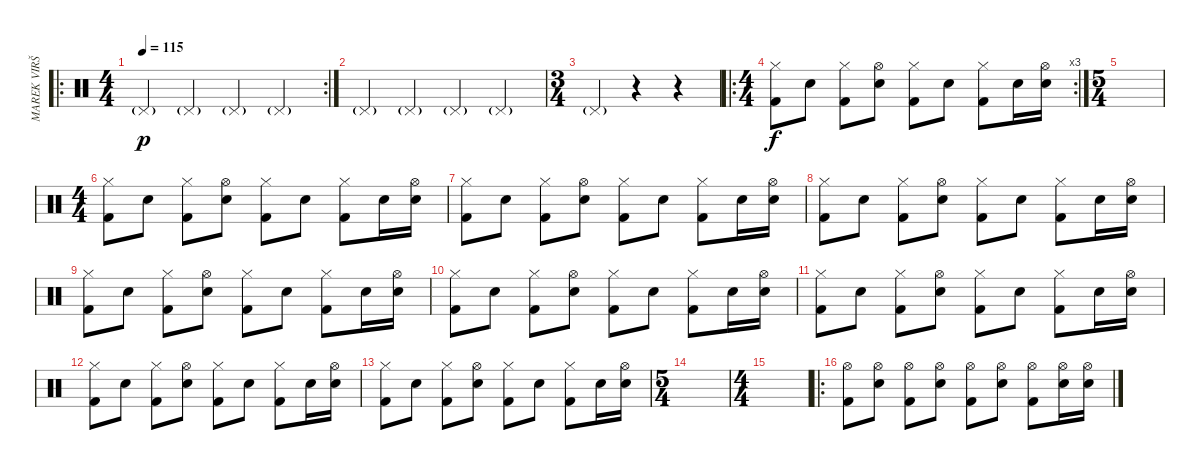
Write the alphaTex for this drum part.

\track ("MAREK VIRŠÍK" "MAREK VIRŠ") {instrument percussion}
\staff {score}
\articulation defaults
\ro
\rc 2
\ts (4 4)
\tempo 115
\clef neutral
\ks c "Pedal Hi-Hat (hit)"{g}.4{dy p} "Pedal Hi-Hat (hit)"{g}.4 "Pedal Hi-Hat (hit)"{g}.4 "Pedal Hi-Hat (hit)"{g}.4
|
"Pedal Hi-Hat (hit)"{g}.4 "Pedal Hi-Hat (hit)"{g}.4 "Pedal Hi-Hat (hit)"{g}.4 "Pedal Hi-Hat (hit)"{g}.4 |
\ts (3 4)
"Pedal Hi-Hat (hit)"{g}.4 r.4 r.4 |
\ro
\rc 3
\ts (4 4)
("Hi-Hat (closed)" "Kick (hit) 2").8{dy f} "Snare (hit) 2".8 ("Hi-Hat (closed)" "Kick (hit) 2").8 ("Hi-Hat (open)" "Snare (hit) 2").8 ("Hi-Hat (closed)" "Kick (hit) 2").8 "Snare (hit) 2".8 ("Hi-Hat (closed)" "Kick (hit) 2").8 "Snare (hit) 2".16 ("Hi-Hat (open)" "Snare (hit) 2").16 |
\ts (5 4)
|
\ts (4 4)
("Hi-Hat (closed)" "Kick (hit) 2").8 "Snare (hit) 2".8 ("Hi-Hat (closed)" "Kick (hit) 2").8 ("Hi-Hat (open)" "Snare (hit) 2").8 ("Hi-Hat (closed)" "Kick (hit) 2").8 "Snare (hit) 2".8 ("Hi-Hat (closed)" "Kick (hit) 2").8 "Snare (hit) 2".16 ("Hi-Hat (open)" "Snare (hit) 2").16 |
("Hi-Hat (closed)" "Kick (hit) 2").8 "Snare (hit) 2".8 ("Hi-Hat (closed)" "Kick (hit) 2").8 ("Hi-Hat (open)" "Snare (hit) 2").8 ("Hi-Hat (closed)" "Kick (hit) 2").8 "Snare (hit) 2".8 ("Hi-Hat (closed)" "Kick (hit) 2").8 "Snare (hit) 2".16 ("Hi-Hat (open)" "Snare (hit) 2").16 |
("Hi-Hat (closed)" "Kick (hit) 2").8 "Snare (hit) 2".8 ("Hi-Hat (closed)" "Kick (hit) 2").8 ("Hi-Hat (open)" "Snare (hit) 2").8 ("Hi-Hat (closed)" "Kick (hit) 2").8 "Snare (hit) 2".8 ("Hi-Hat (closed)" "Kick (hit) 2").8 "Snare (hit) 2".16 ("Hi-Hat (open)" "Snare (hit) 2").16 |
("Hi-Hat (closed)" "Kick (hit) 2").8 "Snare (hit) 2".8 ("Hi-Hat (closed)" "Kick (hit) 2").8 ("Hi-Hat (open)" "Snare (hit) 2").8 ("Hi-Hat (closed)" "Kick (hit) 2").8 "Snare (hit) 2".8 ("Hi-Hat (closed)" "Kick (hit) 2").8 "Snare (hit) 2".16 ("Hi-Hat (open)" "Snare (hit) 2").16 |
("Hi-Hat (closed)" "Kick (hit) 2").8 "Snare (hit) 2".8 ("Hi-Hat (closed)" "Kick (hit) 2").8 ("Hi-Hat (open)" "Snare (hit) 2").8 ("Hi-Hat (closed)" "Kick (hit) 2").8 "Snare (hit) 2".8 ("Hi-Hat (closed)" "Kick (hit) 2").8 "Snare (hit) 2".16 ("Hi-Hat (open)" "Snare (hit) 2").16 |
("Hi-Hat (closed)" "Kick (hit) 2").8 "Snare (hit) 2".8 ("Hi-Hat (closed)" "Kick (hit) 2").8 ("Hi-Hat (open)" "Snare (hit) 2").8 ("Hi-Hat (closed)" "Kick (hit) 2").8 "Snare (hit) 2".8 ("Hi-Hat (closed)" "Kick (hit) 2").8 "Snare (hit) 2".16 ("Hi-Hat (open)" "Snare (hit) 2").16 |
("Hi-Hat (closed)" "Kick (hit) 2").8 "Snare (hit) 2".8 ("Hi-Hat (closed)" "Kick (hit) 2").8 ("Hi-Hat (open)" "Snare (hit) 2").8 ("Hi-Hat (closed)" "Kick (hit) 2").8 "Snare (hit) 2".8 ("Hi-Hat (closed)" "Kick (hit) 2").8 "Snare (hit) 2".16 ("Hi-Hat (open)" "Snare (hit) 2").16 |
("Hi-Hat (closed)" "Kick (hit) 2").8 "Snare (hit) 2".8 ("Hi-Hat (closed)" "Kick (hit) 2").8 ("Hi-Hat (open)" "Snare (hit) 2").8 ("Hi-Hat (closed)" "Kick (hit) 2").8 "Snare (hit) 2".8 ("Hi-Hat (closed)" "Kick (hit) 2").8 "Snare (hit) 2".16 ("Hi-Hat (open)" "Snare (hit) 2").16 |
\ts (5 4)
|
\ts (4 4)
|
\ro
("Hi-Hat (open)" "Kick (hit) 2").8 ("Hi-Hat (open)" "Snare (hit) 2").8 ("Hi-Hat (open)" "Kick (hit) 2").8 ("Hi-Hat (open)" "Snare (hit) 2").8 ("Hi-Hat (open)" "Kick (hit) 2").8 ("Hi-Hat (open)" "Snare (hit) 2").8 ("Hi-Hat (open)" "Kick (hit) 2").8 ("Hi-Hat (open)" "Snare (hit) 2").16 ("Hi-Hat (open)" "Snare (hit) 2").16
